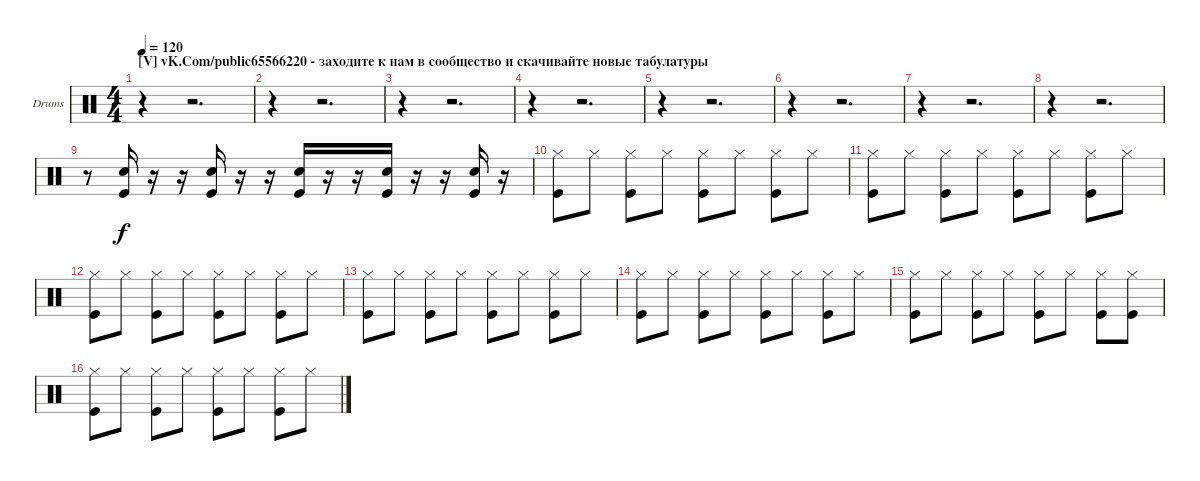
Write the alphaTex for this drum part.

\bracketExtendMode groupsimilarinstruments
\firstSystemTrackNameOrientation horizontal
\otherSystemsTrackNameOrientation horizontal
\track ("Ударные" "Drums") {instrument percussion}
\staff {score}
\articulation defaults
\ts (4 4)
\section ("V" "vK.Com/public65566220 - заходите к нам в сообщество и скачивайте новые табулатуры")
\tempo 120
\clef neutral
\ks c
r.4{dy f} r.2{d} |
r.4 r.2{d} |
r.4 r.2{d} |
r.4 r.2{d} |
r.4 r.2{d} |
r.4 r.2{d} |
r.4 r.2{d} |
r.4 r.2{d} |
r.8 ("Snare (hit) 2" "Kick (hit)").16 r.16 r.16 ("Snare (hit) 2" "Kick (hit)").16 r.16 r.16 ("Snare (hit) 2" "Kick (hit)").16 r.16 r.16 ("Snare (hit) 2" "Kick (hit)").16 r.16 r.16 ("Snare (hit) 2" "Kick (hit)").16 r.16 |
("Hi-Hat (closed)" "Kick (hit)").8 "Hi-Hat (closed)".8 ("Hi-Hat (closed)" "Kick (hit)").8 "Hi-Hat (closed)".8 ("Hi-Hat (closed)" "Kick (hit)").8 "Hi-Hat (closed)".8 ("Hi-Hat (closed)" "Kick (hit)").8 "Hi-Hat (closed)".8 |
("Hi-Hat (closed)" "Kick (hit)").8 "Hi-Hat (closed)".8 ("Hi-Hat (closed)" "Kick (hit)").8 "Hi-Hat (closed)".8 ("Hi-Hat (closed)" "Kick (hit)").8 "Hi-Hat (closed)".8 ("Hi-Hat (closed)" "Kick (hit)").8 "Hi-Hat (closed)".8 |
("Hi-Hat (closed)" "Kick (hit)").8 "Hi-Hat (closed)".8 ("Hi-Hat (closed)" "Kick (hit)").8 "Hi-Hat (closed)".8 ("Hi-Hat (closed)" "Kick (hit)").8 "Hi-Hat (closed)".8 ("Hi-Hat (closed)" "Kick (hit)").8 "Hi-Hat (closed)".8 |
("Hi-Hat (closed)" "Kick (hit)").8 "Hi-Hat (closed)".8 ("Hi-Hat (closed)" "Kick (hit)").8 "Hi-Hat (closed)".8 ("Hi-Hat (closed)" "Kick (hit)").8 "Hi-Hat (closed)".8 ("Hi-Hat (closed)" "Kick (hit)").8 "Hi-Hat (closed)".8 |
("Hi-Hat (closed)" "Kick (hit)").8 "Hi-Hat (closed)".8 ("Hi-Hat (closed)" "Kick (hit)").8 "Hi-Hat (closed)".8 ("Hi-Hat (closed)" "Kick (hit)").8 "Hi-Hat (closed)".8 ("Hi-Hat (closed)" "Kick (hit)").8 "Hi-Hat (closed)".8 |
("Hi-Hat (closed)" "Kick (hit)").8 "Hi-Hat (closed)".8 ("Hi-Hat (closed)" "Kick (hit)").8 "Hi-Hat (closed)".8 ("Hi-Hat (closed)" "Kick (hit)").8 "Hi-Hat (closed)".8 ("Hi-Hat (closed)" "Kick (hit)").8 ("Hi-Hat (closed)" "Kick (hit)").8 |
("Hi-Hat (closed)" "Kick (hit)").8 "Hi-Hat (closed)".8 ("Hi-Hat (closed)" "Kick (hit)").8 "Hi-Hat (closed)".8 ("Hi-Hat (closed)" "Kick (hit)").8 "Hi-Hat (closed)".8 ("Hi-Hat (closed)" "Kick (hit)").8 "Hi-Hat (closed)".8
